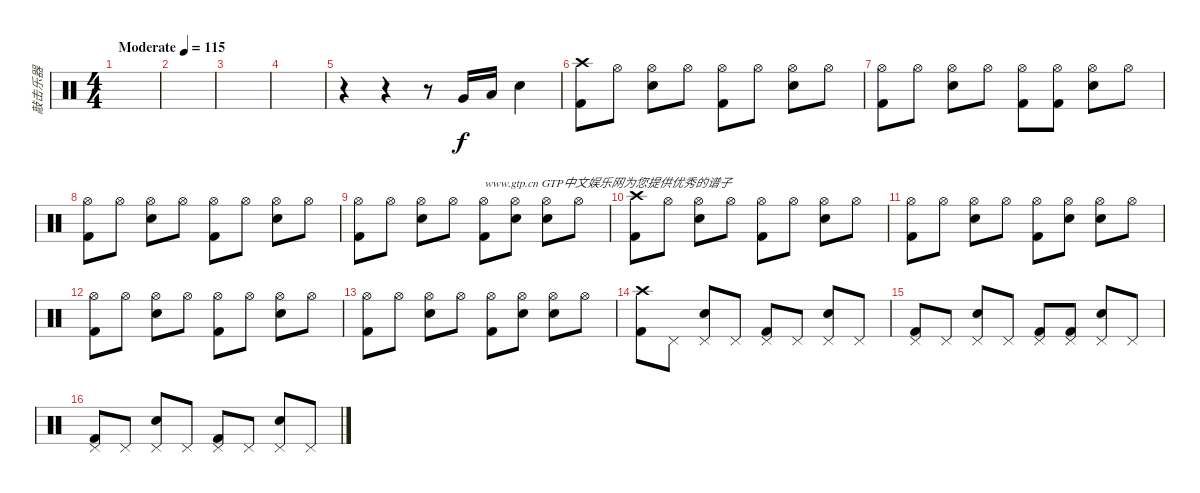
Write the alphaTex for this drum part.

\track ("敲击乐器" "敲击乐器") {instrument percussion}
\staff {score}
\articulation defaults
\ts (4 4)
\tempo (115 "Moderate")
\clef neutral
\ks c
|
|
|
|
r.4 r.4 r.8 "Very Low Tom (hit)".16 "Low Tom (hit)".16 "Snare (hit) 2".4 |
("Crash high (hit)" "Kick (hit) 2").8 "Hi-Hat (open)".8 ("Hi-Hat (open)" "Electric Snare (hit)").8 "Hi-Hat (open)".8 ("Hi-Hat (open)" "Kick (hit) 2").8 "Hi-Hat (open)".8 ("Hi-Hat (open)" "Electric Snare (hit)").8 "Hi-Hat (open)".8 |
("Hi-Hat (open)" "Kick (hit) 2").8 "Hi-Hat (open)".8 ("Hi-Hat (open)" "Electric Snare (hit)").8 "Hi-Hat (open)".8 ("Hi-Hat (open)" "Kick (hit) 2").8 ("Hi-Hat (open)" "Kick (hit) 2").8 ("Hi-Hat (open)" "Electric Snare (hit)").8 "Hi-Hat (open)".8 |
("Hi-Hat (open)" "Kick (hit) 2").8 "Hi-Hat (open)".8 ("Hi-Hat (open)" "Electric Snare (hit)").8 "Hi-Hat (open)".8 ("Hi-Hat (open)" "Kick (hit) 2").8 "Hi-Hat (open)".8 ("Hi-Hat (open)" "Electric Snare (hit)").8 "Hi-Hat (open)".8 |
("Hi-Hat (open)" "Kick (hit) 2").8 "Hi-Hat (open)".8 ("Hi-Hat (open)" "Electric Snare (hit)").8 "Hi-Hat (open)".8 ("Hi-Hat (open)" "Kick (hit) 2").8{txt "www.gtp.cn GTP中文娱乐网为您提供优秀的谱子"} ("Hi-Hat (open)" "Snare (hit) 2").8 ("Hi-Hat (open)" "Electric Snare (hit)").8 "Hi-Hat (open)".8 |
("Crash high (hit)" "Kick (hit) 2").8 "Hi-Hat (open)".8 ("Hi-Hat (open)" "Electric Snare (hit)").8 "Hi-Hat (open)".8 ("Hi-Hat (open)" "Kick (hit) 2").8 "Hi-Hat (open)".8 ("Hi-Hat (open)" "Electric Snare (hit)").8 "Hi-Hat (open)".8 |
("Hi-Hat (open)" "Kick (hit) 2").8 "Hi-Hat (open)".8 ("Hi-Hat (open)" "Electric Snare (hit)").8 "Hi-Hat (open)".8 ("Hi-Hat (open)" "Kick (hit) 2").8 ("Hi-Hat (open)" "Snare (hit) 2").8 ("Hi-Hat (open)" "Electric Snare (hit)").8 "Hi-Hat (open)".8 |
("Hi-Hat (open)" "Kick (hit) 2").8 "Hi-Hat (open)".8 ("Hi-Hat (open)" "Electric Snare (hit)").8 "Hi-Hat (open)".8 ("Hi-Hat (open)" "Kick (hit) 2").8 "Hi-Hat (open)".8 ("Hi-Hat (open)" "Electric Snare (hit)").8 "Hi-Hat (open)".8 |
("Hi-Hat (open)" "Kick (hit) 2").8 "Hi-Hat (open)".8 ("Hi-Hat (open)" "Electric Snare (hit)").8 "Hi-Hat (open)".8 ("Hi-Hat (open)" "Kick (hit) 2").8 ("Hi-Hat (open)" "Electric Snare (hit)").8 ("Hi-Hat (open)" "Electric Snare (hit)").8 "Hi-Hat (open)".8 |
("Crash high (hit)" "Kick (hit) 2").8 "Pedal Hi-Hat (hit)".8 ("Pedal Hi-Hat (hit)" "Electric Snare (hit)").8 "Pedal Hi-Hat (hit)".8 ("Pedal Hi-Hat (hit)" "Kick (hit) 2").8 "Pedal Hi-Hat (hit)".8 ("Pedal Hi-Hat (hit)" "Electric Snare (hit)").8 "Pedal Hi-Hat (hit)".8 |
("Pedal Hi-Hat (hit)" "Kick (hit) 2").8 "Pedal Hi-Hat (hit)".8 ("Pedal Hi-Hat (hit)" "Electric Snare (hit)").8 "Pedal Hi-Hat (hit)".8 ("Pedal Hi-Hat (hit)" "Kick (hit) 2").8 ("Pedal Hi-Hat (hit)" "Kick (hit) 2").8 ("Pedal Hi-Hat (hit)" "Electric Snare (hit)").8 "Pedal Hi-Hat (hit)".8 |
("Pedal Hi-Hat (hit)" "Kick (hit) 2").8 "Pedal Hi-Hat (hit)".8 ("Pedal Hi-Hat (hit)" "Electric Snare (hit)").8 "Pedal Hi-Hat (hit)".8 ("Pedal Hi-Hat (hit)" "Kick (hit) 2").8 "Pedal Hi-Hat (hit)".8 ("Pedal Hi-Hat (hit)" "Electric Snare (hit)").8 "Pedal Hi-Hat (hit)".8
